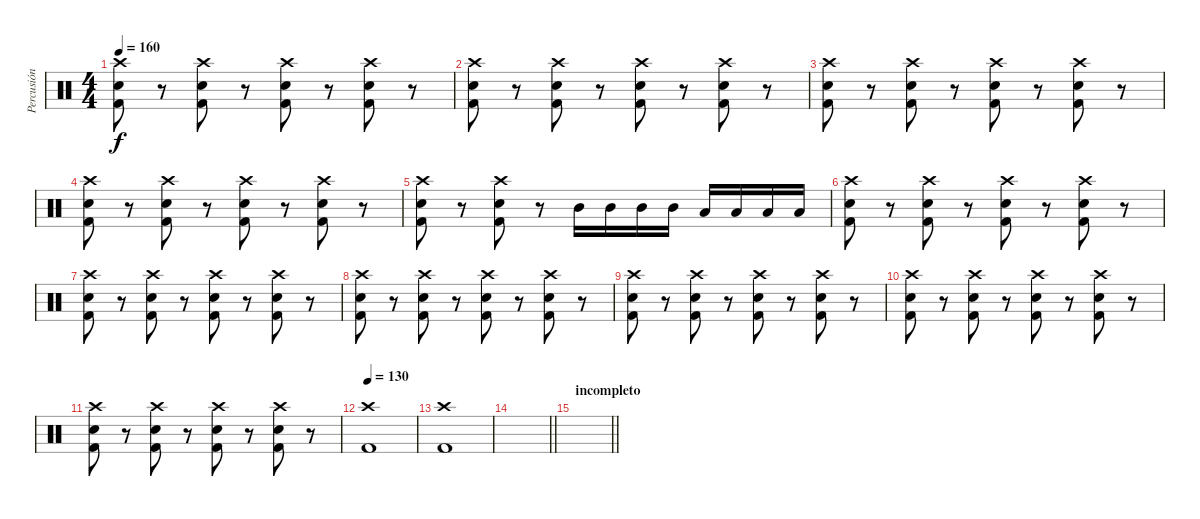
\track ("Percusión" "Percusión") {instrument percussion}
\staff {score}
\articulation defaults
\ts (4 4)
\tempo 160
\clef neutral
\ks c
("Crash high (hit)" "Electric Snare (hit)" "Kick (hit) 2").8{dy f} r.8 ("Crash high (hit)" "Electric Snare (hit)" "Kick (hit) 2").8 r.8 ("Crash high (hit)" "Electric Snare (hit)" "Kick (hit) 2").8 r.8 ("Crash high (hit)" "Electric Snare (hit)" "Kick (hit) 2").8 r.8 |
("Crash high (hit)" "Electric Snare (hit)" "Kick (hit) 2").8 r.8 ("Crash high (hit)" "Electric Snare (hit)" "Kick (hit) 2").8 r.8 ("Crash high (hit)" "Electric Snare (hit)" "Kick (hit) 2").8 r.8 ("Crash high (hit)" "Electric Snare (hit)" "Kick (hit) 2").8 r.8 |
("Crash high (hit)" "Electric Snare (hit)" "Kick (hit) 2").8 r.8 ("Crash high (hit)" "Electric Snare (hit)" "Kick (hit) 2").8 r.8 ("Crash high (hit)" "Electric Snare (hit)" "Kick (hit) 2").8 r.8 ("Crash high (hit)" "Electric Snare (hit)" "Kick (hit) 2").8 r.8 |
("Crash high (hit)" "Electric Snare (hit)" "Kick (hit) 2").8 r.8 ("Crash high (hit)" "Electric Snare (hit)" "Kick (hit) 2").8 r.8 ("Crash high (hit)" "Electric Snare (hit)" "Kick (hit) 2").8 r.8 ("Crash high (hit)" "Electric Snare (hit)" "Kick (hit) 2").8 r.8 |
("Crash high (hit)" "Electric Snare (hit)" "Kick (hit) 2").8 r.8 ("Crash high (hit)" "Electric Snare (hit)" "Kick (hit) 2").8 r.8 "Mid Tom (hit)".16 "Mid Tom (hit)".16 "Mid Tom (hit)".16 "Mid Tom (hit)".16 "Low Tom (hit)".16 "Low Tom (hit)".16 "Low Tom (hit)".16 "Low Tom (hit)".16 |
("Crash high (hit)" "Electric Snare (hit)" "Kick (hit) 2").8 r.8 ("Crash high (hit)" "Electric Snare (hit)" "Kick (hit) 2").8 r.8 ("Crash high (hit)" "Electric Snare (hit)" "Kick (hit) 2").8 r.8 ("Crash high (hit)" "Electric Snare (hit)" "Kick (hit) 2").8 r.8 |
("Crash high (hit)" "Electric Snare (hit)" "Kick (hit) 2").8 r.8 ("Crash high (hit)" "Electric Snare (hit)" "Kick (hit) 2").8 r.8 ("Crash high (hit)" "Electric Snare (hit)" "Kick (hit) 2").8 r.8 ("Crash high (hit)" "Electric Snare (hit)" "Kick (hit) 2").8 r.8 |
("Crash high (hit)" "Electric Snare (hit)" "Kick (hit) 2").8 r.8 ("Crash high (hit)" "Electric Snare (hit)" "Kick (hit) 2").8 r.8 ("Crash high (hit)" "Electric Snare (hit)" "Kick (hit) 2").8 r.8 ("Crash high (hit)" "Electric Snare (hit)" "Kick (hit) 2").8 r.8 |
("Crash high (hit)" "Electric Snare (hit)" "Kick (hit) 2").8 r.8 ("Crash high (hit)" "Electric Snare (hit)" "Kick (hit) 2").8 r.8 ("Crash high (hit)" "Electric Snare (hit)" "Kick (hit) 2").8 r.8 ("Crash high (hit)" "Electric Snare (hit)" "Kick (hit) 2").8 r.8 |
("Crash high (hit)" "Electric Snare (hit)" "Kick (hit) 2").8 r.8 ("Crash high (hit)" "Electric Snare (hit)" "Kick (hit) 2").8 r.8 ("Crash high (hit)" "Electric Snare (hit)" "Kick (hit) 2").8 r.8 ("Crash high (hit)" "Electric Snare (hit)" "Kick (hit) 2").8 r.8 |
("Crash high (hit)" "Electric Snare (hit)" "Kick (hit) 2").8 r.8 ("Crash high (hit)" "Electric Snare (hit)" "Kick (hit) 2").8 r.8 ("Crash high (hit)" "Electric Snare (hit)" "Kick (hit) 2").8 r.8 ("Crash high (hit)" "Electric Snare (hit)" "Kick (hit) 2").8 r.8 |
\tempo 130
("Crash high (hit)" "Kick (hit) 2").1 |
("Crash high (hit)" "Kick (hit) 2").1 |
\barLineRight lightlight
|
\section ("" "incompleto")
\barLineRight lightlight
